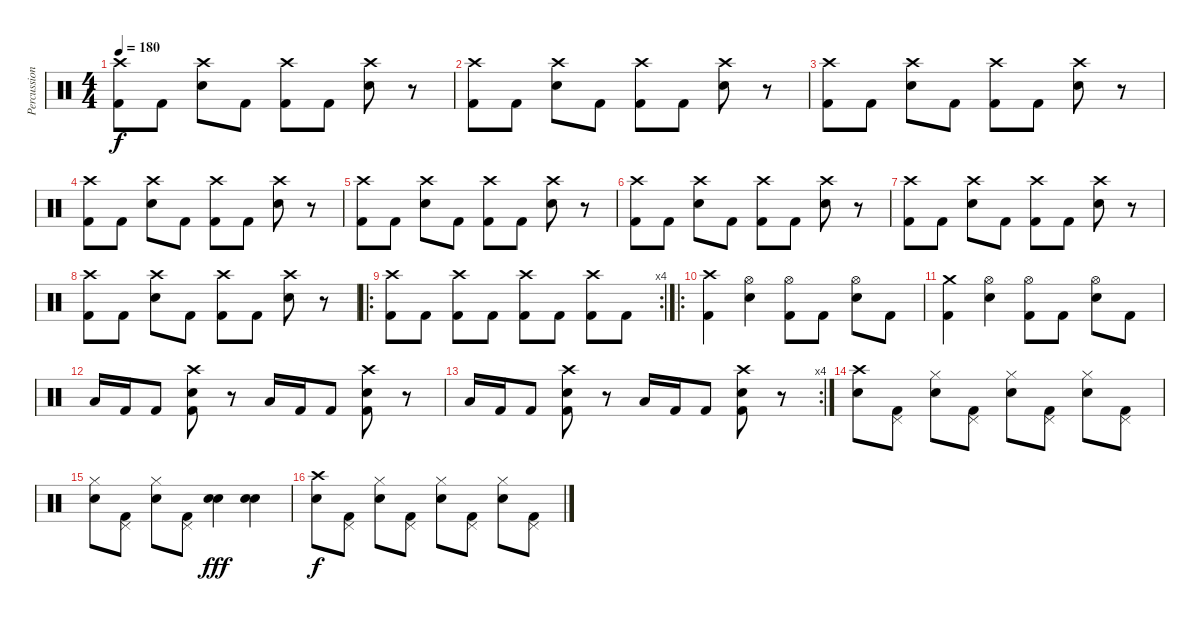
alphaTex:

\track ("Percussion" "Percussion") {instrument percussion}
\staff {score}
\articulation defaults
\ts (4 4)
\tempo 180
\clef neutral
\ks c
("Crash high (hit)" "Kick (hit) 2").8{dy f} "Kick (hit) 2".8 ("Crash high (hit)" "Electric Snare (hit)").8 "Kick (hit) 2".8 ("Crash high (hit)" "Kick (hit) 2").8 "Kick (hit) 2".8 ("Crash high (hit)" "Electric Snare (hit)").8 r.8 |
("Crash high (hit)" "Kick (hit) 2").8 "Kick (hit) 2".8 ("Crash high (hit)" "Electric Snare (hit)").8 "Kick (hit) 2".8 ("Crash high (hit)" "Kick (hit) 2").8 "Kick (hit) 2".8 ("Crash high (hit)" "Electric Snare (hit)").8 r.8 |
("Crash high (hit)" "Kick (hit) 2").8 "Kick (hit) 2".8 ("Crash high (hit)" "Electric Snare (hit)").8 "Kick (hit) 2".8 ("Crash high (hit)" "Kick (hit) 2").8 "Kick (hit) 2".8 ("Crash high (hit)" "Electric Snare (hit)").8 r.8 |
("Crash high (hit)" "Kick (hit) 2").8 "Kick (hit) 2".8 ("Crash high (hit)" "Electric Snare (hit)").8 "Kick (hit) 2".8 ("Crash high (hit)" "Kick (hit) 2").8 "Kick (hit) 2".8 ("Crash high (hit)" "Electric Snare (hit)").8 r.8 |
("Crash high (hit)" "Kick (hit) 2").8 "Kick (hit) 2".8 ("Crash high (hit)" "Electric Snare (hit)").8 "Kick (hit) 2".8 ("Crash high (hit)" "Kick (hit) 2").8 "Kick (hit) 2".8 ("Crash high (hit)" "Electric Snare (hit)").8 r.8 |
("Crash high (hit)" "Kick (hit) 2").8 "Kick (hit) 2".8 ("Crash high (hit)" "Electric Snare (hit)").8 "Kick (hit) 2".8 ("Crash high (hit)" "Kick (hit) 2").8 "Kick (hit) 2".8 ("Crash high (hit)" "Electric Snare (hit)").8 r.8 |
("Crash high (hit)" "Kick (hit) 2").8 "Kick (hit) 2".8 ("Crash high (hit)" "Electric Snare (hit)").8 "Kick (hit) 2".8 ("Crash high (hit)" "Kick (hit) 2").8 "Kick (hit) 2".8 ("Crash high (hit)" "Electric Snare (hit)").8 r.8 |
("Crash high (hit)" "Kick (hit) 2").8 "Kick (hit) 2".8 ("Crash high (hit)" "Electric Snare (hit)").8 "Kick (hit) 2".8 ("Crash high (hit)" "Kick (hit) 2").8 "Kick (hit) 2".8 ("Crash high (hit)" "Electric Snare (hit)").8 r.8 |
\ro
\rc 4
("Crash high (hit)" "Kick (hit) 2").8{volume 9} "Kick (hit) 2".8{volume 11} ("Crash high (hit)" "Kick (hit) 2").8 "Kick (hit) 2".8 ("Crash high (hit)" "Kick (hit) 2").8 "Kick (hit) 2".8 ("Crash high (hit)" "Kick (hit) 2").8 "Kick (hit) 2".8 |
\ro
("Crash high (hit)" "Kick (hit) 2").4 ("Hi-Hat (open)" "Electric Snare (hit)").4 ("Hi-Hat (open)" "Kick (hit) 2").8 "Kick (hit) 2".8 ("Hi-Hat (open)" "Electric Snare (hit)").8 "Kick (hit) 2".8 |
("Crash medium (hit)" "Kick (hit) 2").4 ("Hi-Hat (open)" "Electric Snare (hit)").4 ("Hi-Hat (open)" "Kick (hit) 2").8 "Kick (hit) 2".8 ("Hi-Hat (open)" "Electric Snare (hit)").8 "Kick (hit) 2".8 |
"Low Tom (hit)".16 "Kick (hit) 2".16 "Kick (hit) 2".8 ("Crash high (hit)" "Snare (hit) 2" "Kick (hit) 2").8 r.8 "Low Tom (hit)".16 "Kick (hit) 2".16 "Kick (hit) 2".8 ("Crash high (hit)" "Snare (hit) 2" "Kick (hit) 2").8 r.8 |
\rc 4 "Low Tom (hit)".16 "Kick (hit) 2".16 "Kick (hit) 2".8
("Crash high (hit)" "Snare (hit) 2" "Kick (hit) 2").8 r.8 "Low Tom (hit)".16 "Kick (hit) 2".16 "Kick (hit) 2".8 ("Crash high (hit)" "Snare (hit) 2" "Kick (hit) 2").8 r.8 |
("Crash high (hit)" "Snare (hit) 2").8 ("Pedal Hi-Hat (hit)" "Kick (hit) 2").8 ("Hi-Hat (closed)" "Snare (hit) 2").8 ("Pedal Hi-Hat (hit)" "Kick (hit) 2").8 ("Hi-Hat (closed)" "Snare (hit) 2").8 ("Pedal Hi-Hat (hit)" "Kick (hit) 2").8 ("Hi-Hat (closed)" "Snare (hit) 2").8 ("Pedal Hi-Hat (hit)" "Kick (hit) 2").8 |
("Hi-Hat (closed)" "Snare (hit) 2").8 ("Pedal Hi-Hat (hit)" "Kick (hit) 2").8 ("Hi-Hat (closed)" "Snare (hit) 2").8 ("Pedal Hi-Hat (hit)" "Kick (hit) 2").8 ("Snare (hit) 2" "Electric Snare (hit)").4{dy fff} ("Snare (hit) 2" "Electric Snare (hit)").4 |
("Crash high (hit)" "Snare (hit) 2").8{dy f} ("Pedal Hi-Hat (hit)" "Kick (hit) 2").8 ("Hi-Hat (closed)" "Snare (hit) 2").8 ("Pedal Hi-Hat (hit)" "Kick (hit) 2").8 ("Hi-Hat (closed)" "Snare (hit) 2").8 ("Pedal Hi-Hat (hit)" "Kick (hit) 2").8 ("Hi-Hat (closed)" "Snare (hit) 2").8 ("Pedal Hi-Hat (hit)" "Kick (hit) 2").8
